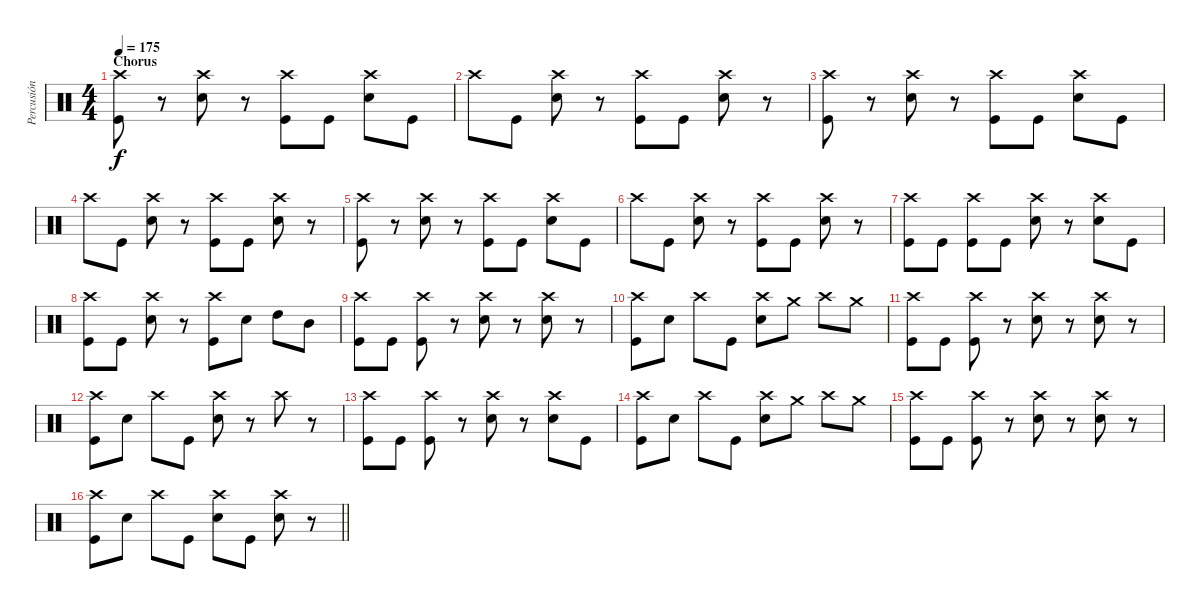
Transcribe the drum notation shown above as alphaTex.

\track ("Percusión" "Percusión") {instrument percussion}
\staff {score}
\articulation defaults
\ts (4 4)
\section ("" "Chorus")
\tempo 175
\clef neutral
\ks c
("Crash high (hit)" "Kick (hit)").8{dy f} r.8 ("Crash high (hit)" "Snare (hit) 2").8 r.8 ("Crash high (hit)" "Kick (hit)").8 "Kick (hit)".8 ("Crash high (hit)" "Snare (hit) 2").8 "Kick (hit)".8 |
"Crash high (hit)".8 "Kick (hit)".8 ("Crash high (hit)" "Snare (hit) 2").8 r.8 ("Crash high (hit)" "Kick (hit)").8 "Kick (hit)".8 ("Crash high (hit)" "Snare (hit) 2").8 r.8 |
("Crash high (hit)" "Kick (hit)").8 r.8 ("Crash high (hit)" "Snare (hit) 2").8 r.8 ("Crash high (hit)" "Kick (hit)").8 "Kick (hit)".8 ("Crash high (hit)" "Snare (hit) 2").8 "Kick (hit)".8 |
"Crash high (hit)".8 "Kick (hit)".8 ("Crash high (hit)" "Snare (hit) 2").8 r.8 ("Crash high (hit)" "Kick (hit)").8 "Kick (hit)".8 ("Crash high (hit)" "Snare (hit) 2").8 r.8 |
("Crash high (hit)" "Kick (hit)").8 r.8 ("Crash high (hit)" "Snare (hit) 2").8 r.8 ("Crash high (hit)" "Kick (hit)").8 "Kick (hit)".8 ("Crash high (hit)" "Snare (hit) 2").8 "Kick (hit)".8 |
"Crash high (hit)".8 "Kick (hit)".8 ("Crash high (hit)" "Snare (hit) 2").8 r.8 ("Crash high (hit)" "Kick (hit)").8 "Kick (hit)".8 ("Crash high (hit)" "Snare (hit) 2").8 r.8 |
("Crash high (hit)" "Kick (hit)").8 "Kick (hit)".8 ("Crash high (hit)" "Kick (hit)").8 "Kick (hit)".8 ("Crash high (hit)" "Snare (hit) 2").8 r.8 ("Crash high (hit)" "Snare (hit) 2").8 "Kick (hit)".8 |
("Crash high (hit)" "Kick (hit)").8 "Kick (hit)".8 ("Crash high (hit)" "Snare (hit) 2").8 r.8 ("Crash high (hit)" "Kick (hit)").8 "Snare (hit) 2".8 "High Tom (hit)".8 "Mid Tom (hit)".8 |
("Crash high (hit)" "Kick (hit)").8 "Kick (hit)".8 ("Crash high (hit)" "Kick (hit)").8 r.8 ("Crash high (hit)" "Snare (hit) 2").8 r.8 ("Crash high (hit)" "Snare (hit) 2").8 r.8 |
("Crash high (hit)" "Kick (hit)").8 "Snare (hit) 2".8 "Crash high (hit)".8 "Kick (hit)".8 ("Crash high (hit)" "Snare (hit) 2").8 "Crash medium (hit)".8 "Crash high (hit)".8 "Crash medium (hit)".8 |
("Crash high (hit)" "Kick (hit)").8 "Kick (hit)".8 ("Crash high (hit)" "Kick (hit)").8 r.8 ("Crash high (hit)" "Snare (hit) 2").8 r.8 ("Crash high (hit)" "Snare (hit) 2").8 r.8 |
("Crash high (hit)" "Kick (hit)").8 "Snare (hit) 2".8 "Crash high (hit)".8 "Kick (hit)".8 ("Crash high (hit)" "Snare (hit) 2").8 r.8 "Crash high (hit)".8 r.8 |
("Crash high (hit)" "Kick (hit)").8 "Kick (hit)".8 ("Crash high (hit)" "Kick (hit)").8 r.8 ("Crash high (hit)" "Snare (hit) 2").8 r.8 ("Crash high (hit)" "Snare (hit) 2").8 "Kick (hit)".8 |
("Crash high (hit)" "Kick (hit)").8 "Snare (hit) 2".8 "Crash high (hit)".8 "Kick (hit)".8 ("Crash high (hit)" "Snare (hit) 2").8 "Crash medium (hit)".8 "Crash high (hit)".8 "Crash medium (hit)".8 |
("Crash high (hit)" "Kick (hit)").8 "Kick (hit)".8 ("Crash high (hit)" "Kick (hit)").8 r.8 ("Crash high (hit)" "Snare (hit) 2").8 r.8 ("Crash high (hit)" "Snare (hit) 2").8 r.8 |
\barLineRight lightlight
("Crash high (hit)" "Kick (hit)").8 "Snare (hit) 2".8 "Crash high (hit)".8 "Kick (hit)".8 ("Crash high (hit)" "Snare (hit) 2").8 "Kick (hit)".8 ("Crash high (hit)" "Snare (hit) 2").8 r.8
